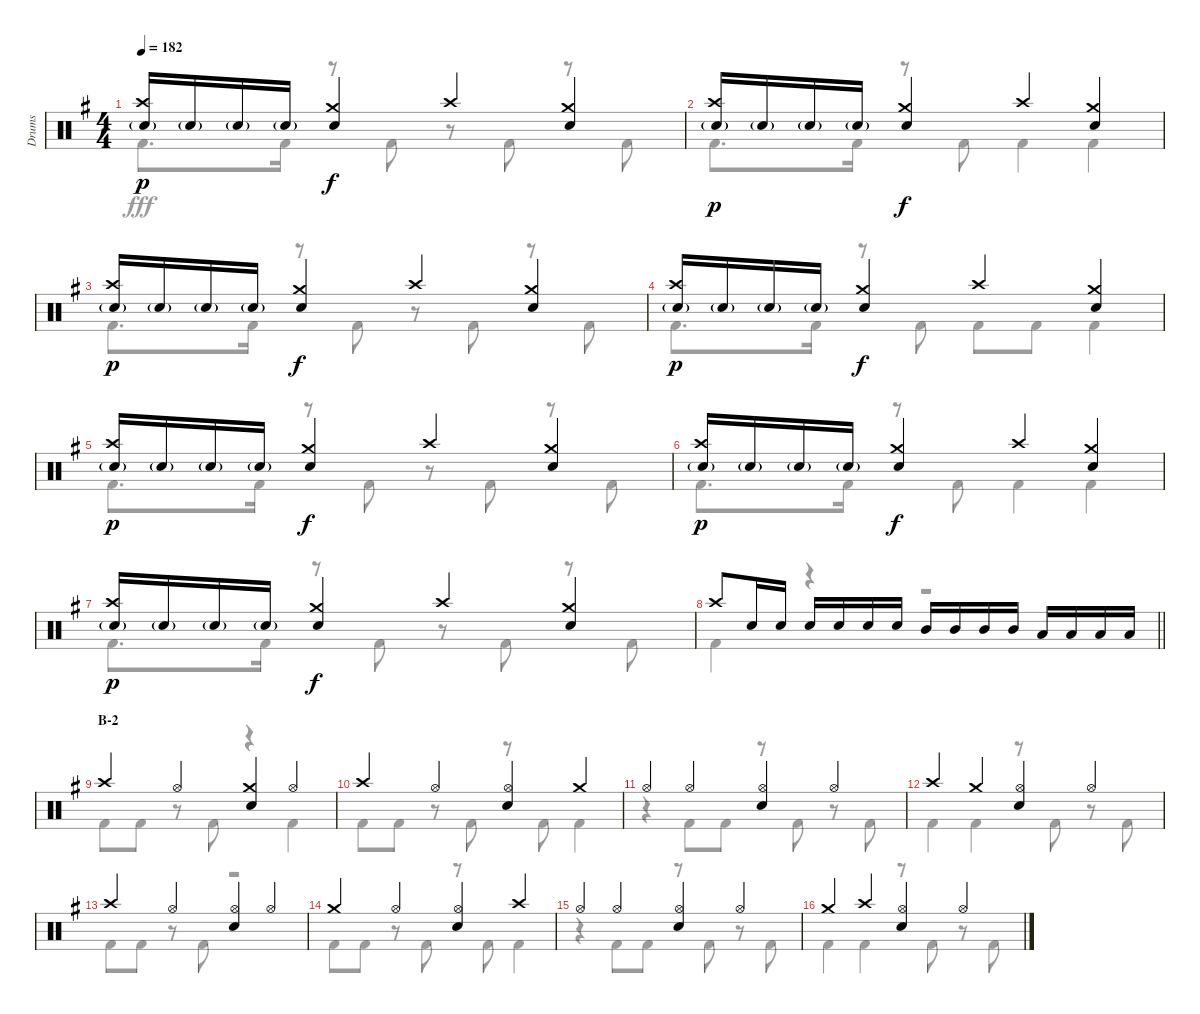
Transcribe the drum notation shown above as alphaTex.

\track ("Drums" "Drums") {instrument percussion}
\staff {score}
\articulation defaults
\voice
\ts (4 4)
\tempo 182
\clef neutral
\ks g
("Crash high (hit)" "Snare (hit) 2"{g}).16{dy p} "Snare (hit) 2"{g}.16 "Snare (hit) 2"{g}.16 "Snare (hit) 2"{g}.16 ("Crash medium (hit)" "Snare (hit) 2").4{dy f} "Crash high (hit)".4 ("Crash medium (hit)" "Snare (hit) 2").4 |
("Crash high (hit)" "Snare (hit) 2"{g}).16{dy p} "Snare (hit) 2"{g}.16 "Snare (hit) 2"{g}.16 "Snare (hit) 2"{g}.16 ("Crash medium (hit)" "Snare (hit) 2").4{dy f} "Crash high (hit)".4 ("Crash medium (hit)" "Snare (hit) 2").4 |
("Crash high (hit)" "Snare (hit) 2"{g}).16{dy p} "Snare (hit) 2"{g}.16 "Snare (hit) 2"{g}.16 "Snare (hit) 2"{g}.16 ("Crash medium (hit)" "Snare (hit) 2").4{dy f} "Crash high (hit)".4 ("Crash medium (hit)" "Snare (hit) 2").4 |
("Crash high (hit)" "Snare (hit) 2"{g}).16{dy p} "Snare (hit) 2"{g}.16 "Snare (hit) 2"{g}.16 "Snare (hit) 2"{g}.16 ("Crash medium (hit)" "Snare (hit) 2").4{dy f} "Crash high (hit)".4 ("Crash medium (hit)" "Snare (hit) 2").4 |
("Crash high (hit)" "Snare (hit) 2"{g}).16{dy p} "Snare (hit) 2"{g}.16 "Snare (hit) 2"{g}.16 "Snare (hit) 2"{g}.16 ("Crash medium (hit)" "Snare (hit) 2").4{dy f} "Crash high (hit)".4 ("Crash medium (hit)" "Snare (hit) 2").4 |
("Crash high (hit)" "Snare (hit) 2"{g}).16{dy p} "Snare (hit) 2"{g}.16 "Snare (hit) 2"{g}.16 "Snare (hit) 2"{g}.16 ("Crash medium (hit)" "Snare (hit) 2").4{dy f} "Crash high (hit)".4 ("Crash medium (hit)" "Snare (hit) 2").4 |
("Crash high (hit)" "Snare (hit) 2"{g}).16{dy p} "Snare (hit) 2"{g}.16 "Snare (hit) 2"{g}.16 "Snare (hit) 2"{g}.16 ("Crash medium (hit)" "Snare (hit) 2").4{dy f} "Crash high (hit)".4 ("Crash medium (hit)" "Snare (hit) 2").4 |
\barLineRight lightlight "Crash high (hit)".8 "Snare (hit) 2".16 "Snare (hit) 2".16 "Snare (hit) 2".16 "Snare (hit) 2".16 "Snare (hit) 2".16 "Snare (hit) 2".16 "Mid Tom (hit)".16 "Mid Tom (hit)".16 "Mid Tom (hit)".16 "Mid Tom (hit)".16 "Low Tom (hit)".16 "Low Tom (hit)".16 "Low Tom (hit)".16 "Low Tom (hit)".16
|
\section ("" "B-2")
"Crash high (hit)".4 "Hi-Hat (open)".4 ("Crash medium (hit)" "Snare (hit) 2").4 "Hi-Hat (open)".4 |
"Crash high (hit)".4 "Hi-Hat (open)".4 ("Hi-Hat (open)" "Snare (hit) 2").4 "Crash medium (hit)".4 |
"Hi-Hat (open)".4 "Hi-Hat (open)".4 ("Hi-Hat (open)" "Snare (hit) 2").4 "Hi-Hat (open)".4 |
"Crash high (hit)".4 "Crash medium (hit)".4 ("Hi-Hat (open)" "Snare (hit) 2").4 "Hi-Hat (open)".4 |
"Crash high (hit)".4 "Hi-Hat (open)".4 ("Hi-Hat (open)" "Snare (hit) 2").4 "Hi-Hat (open)".4 |
"Crash medium (hit)".4 "Hi-Hat (open)".4 ("Hi-Hat (open)" "Snare (hit) 2").4 "Crash high (hit)".4 |
"Hi-Hat (open)".4 "Hi-Hat (open)".4 ("Hi-Hat (open)" "Snare (hit) 2").4 "Hi-Hat (open)".4 |
"Crash medium (hit)".4 "Crash high (hit)".4 ("Hi-Hat (open)" "Snare (hit) 2").4 "Hi-Hat (open)".4
\voice
\clef neutral
\ottava regular
\simile none
\ks g "Kick (hit) 2".8{d dy fff} "Kick (hit) 2".16
r.8 "Kick (hit) 2".8 r.8 "Kick (hit) 2".8 r.8 "Kick (hit) 2".8 |
"Kick (hit) 2".8{d} "Kick (hit) 2".16 r.8 "Kick (hit) 2".8 "Kick (hit) 2".4 "Kick (hit) 2".4 |
"Kick (hit) 2".8{d} "Kick (hit) 2".16 r.8 "Kick (hit) 2".8 r.8 "Kick (hit) 2".8 r.8 "Kick (hit) 2".8 |
"Kick (hit) 2".8{d} "Kick (hit) 2".16 r.8 "Kick (hit) 2".8 "Kick (hit) 2".8 "Kick (hit) 2".8 "Kick (hit) 2".4 |
"Kick (hit) 2".8{d} "Kick (hit) 2".16 r.8 "Kick (hit) 2".8 r.8 "Kick (hit) 2".8 r.8 "Kick (hit) 2".8 |
"Kick (hit) 2".8{d} "Kick (hit) 2".16 r.8 "Kick (hit) 2".8 "Kick (hit) 2".4 "Kick (hit) 2".4 |
"Kick (hit) 2".8{d} "Kick (hit) 2".16 r.8 "Kick (hit) 2".8 r.8 "Kick (hit) 2".8 r.8 "Kick (hit) 2".8 |
\barLineRight lightlight "Kick (hit) 2".4
r.4 r.2 |
"Kick (hit) 2".8 "Kick (hit) 2".8 r.8 "Kick (hit) 2".8 r.4 "Kick (hit) 2".4 |
"Kick (hit) 2".8 "Kick (hit) 2".8 r.8 "Kick (hit) 2".8 r.8 "Kick (hit) 2".8 "Kick (hit) 2".4 |
r.4 "Kick (hit) 2".8 "Kick (hit) 2".8 r.8 "Kick (hit) 2".8 r.8 "Kick (hit) 2".8 |
"Kick (hit) 2".4 "Kick (hit) 2".4 r.8 "Kick (hit) 2".8 r.8 "Kick (hit) 2".8 |
"Kick (hit) 2".8 "Kick (hit) 2".8 r.8 "Kick (hit) 2".8 r.2 |
"Kick (hit) 2".8 "Kick (hit) 2".8 r.8 "Kick (hit) 2".8 r.8 "Kick (hit) 2".8 "Kick (hit) 2".4 |
r.4 "Kick (hit) 2".8 "Kick (hit) 2".8 r.8 "Kick (hit) 2".8 r.8 "Kick (hit) 2".8 |
"Kick (hit) 2".4 "Kick (hit) 2".4 r.8 "Kick (hit) 2".8 r.8 "Kick (hit) 2".8
